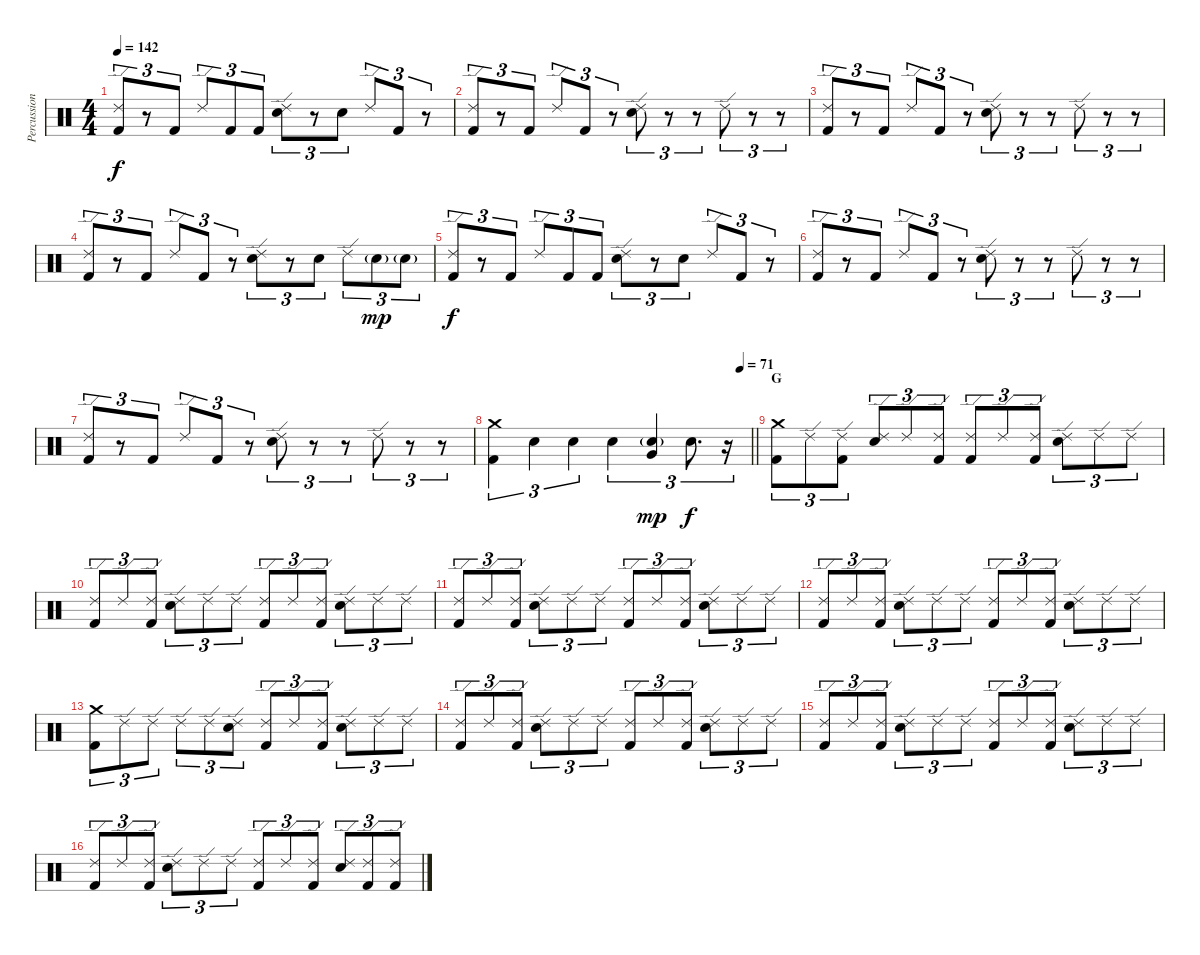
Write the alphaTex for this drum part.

\track ("Percussion" "Percussion") {instrument percussion}
\staff {score}
\articulation defaults
\ts (4 4)
\tempo 142
\clef neutral
\ks c
("Ride (edge) 2" "Kick (hit) 2").8{tu (3 2) dy f} r.8{tu (3 2)} "Kick (hit) 2".8{tu (3 2)} "Ride (edge) 2".8{tu (3 2)} "Kick (hit) 2".8{tu (3 2)} "Kick (hit) 2".8{tu (3 2)} ("Ride (edge) 2" "Electric Snare (hit)").8{tu (3 2)} r.8{tu (3 2)} "Electric Snare (hit)".8{tu (3 2)} "Ride (edge) 2".8{tu (3 2)} "Kick (hit) 2".8{tu (3 2)} r.8{tu (3 2)} |
("Ride (edge) 2" "Kick (hit) 2").8{tu (3 2)} r.8{tu (3 2)} "Kick (hit) 2".8{tu (3 2)} "Ride (edge) 2".8{tu (3 2)} "Kick (hit) 2".8{tu (3 2)} r.8{tu (3 2)} ("Ride (edge) 2" "Electric Snare (hit)").8{tu (3 2)} r.8{tu (3 2)} r.8{tu (3 2)} "Ride (edge) 2".8{tu (3 2)} r.8{tu (3 2)} r.8{tu (3 2)} |
("Ride (edge) 2" "Kick (hit) 2").8{tu (3 2)} r.8{tu (3 2)} "Kick (hit) 2".8{tu (3 2)} "Ride (edge) 2".8{tu (3 2)} "Kick (hit) 2".8{tu (3 2)} r.8{tu (3 2)} ("Ride (edge) 2" "Electric Snare (hit)").8{tu (3 2)} r.8{tu (3 2)} r.8{tu (3 2)} "Ride (edge) 2".8{tu (3 2)} r.8{tu (3 2)} r.8{tu (3 2)} |
("Ride (edge) 2" "Kick (hit) 2").8{tu (3 2)} r.8{tu (3 2)} "Kick (hit) 2".8{tu (3 2)} "Ride (edge) 2".8{tu (3 2)} "Kick (hit) 2".8{tu (3 2)} r.8{tu (3 2)} ("Ride (edge) 2" "Electric Snare (hit)").8{tu (3 2)} r.8{tu (3 2)} "Electric Snare (hit)".8{tu (3 2)} "Ride (edge) 2".8{tu (3 2)} "Electric Snare (hit)"{g}.8{tu (3 2) dy mp} "Electric Snare (hit)"{g}.8{tu (3 2)} |
("Ride (edge) 2" "Kick (hit) 2").8{tu (3 2) dy f} r.8{tu (3 2)} "Kick (hit) 2".8{tu (3 2)} "Ride (edge) 2".8{tu (3 2)} "Kick (hit) 2".8{tu (3 2)} "Kick (hit) 2".8{tu (3 2)} ("Ride (edge) 2" "Electric Snare (hit)").8{tu (3 2)} r.8{tu (3 2)} "Electric Snare (hit)".8{tu (3 2)} "Ride (edge) 2".8{tu (3 2)} "Kick (hit) 2".8{tu (3 2)} r.8{tu (3 2)} |
("Ride (edge) 2" "Kick (hit) 2").8{tu (3 2)} r.8{tu (3 2)} "Kick (hit) 2".8{tu (3 2)} "Ride (edge) 2".8{tu (3 2)} "Kick (hit) 2".8{tu (3 2)} r.8{tu (3 2)} ("Ride (edge) 2" "Electric Snare (hit)").8{tu (3 2)} r.8{tu (3 2)} r.8{tu (3 2)} "Ride (edge) 2".8{tu (3 2)} r.8{tu (3 2)} r.8{tu (3 2)} |
("Ride (edge) 2" "Kick (hit) 2").8{tu (3 2)} r.8{tu (3 2)} "Kick (hit) 2".8{tu (3 2)} "Ride (edge) 2".8{tu (3 2)} "Kick (hit) 2".8{tu (3 2)} r.8{tu (3 2)} ("Ride (edge) 2" "Electric Snare (hit)").8{tu (3 2)} r.8{tu (3 2)} r.8{tu (3 2)} "Ride (edge) 2".8{tu (3 2)} r.8{tu (3 2)} r.8{tu (3 2)} |
\tempo (71 0.9583333333333334)
\barLineRight lightlight
("Crash medium (hit)" "Kick (hit) 2").4{tu (3 2)} "Electric Snare (hit)".4{tu (3 2)} "Electric Snare (hit)".4{tu (3 2)} "Electric Snare (hit)".4{tu (3 2)} ("Very Low Tom (hit)" "Electric Snare (hit)"{g}).4{tu (3 2) dy mp} "Electric Snare (hit)".8{d tu (3 2) dy f} r.16{tu (3 2)} |
\section ("" "G")
("Crash medium (hit)" "Kick (hit) 2").8{tu (3 2)} "Ride (edge) 2".8{tu (3 2)} ("Ride (edge) 2" "Kick (hit) 2").8{tu (3 2)} ("Ride (edge) 2" "Electric Snare (hit)").8{tu (3 2)} "Ride (edge) 2".8{tu (3 2)} ("Ride (edge) 2" "Kick (hit) 2").8{tu (3 2)} ("Ride (edge) 2" "Kick (hit) 2").8{tu (3 2)} "Ride (edge) 2".8{tu (3 2)} ("Ride (edge) 2" "Kick (hit) 2").8{tu (3 2)} ("Ride (edge) 2" "Electric Snare (hit)").8{tu (3 2)} "Ride (edge) 2".8{tu (3 2)} "Ride (edge) 2".8{tu (3 2)} |
("Ride (edge) 2" "Kick (hit) 2").8{tu (3 2)} "Ride (edge) 2".8{tu (3 2)} ("Ride (edge) 2" "Kick (hit) 2").8{tu (3 2)} ("Ride (edge) 2" "Electric Snare (hit)").8{tu (3 2)} "Ride (edge) 2".8{tu (3 2)} "Ride (edge) 2".8{tu (3 2)} ("Ride (edge) 2" "Kick (hit) 2").8{tu (3 2)} "Ride (edge) 2".8{tu (3 2)} ("Ride (edge) 2" "Kick (hit) 2").8{tu (3 2)} ("Ride (edge) 2" "Electric Snare (hit)").8{tu (3 2)} "Ride (edge) 2".8{tu (3 2)} "Ride (edge) 2".8{tu (3 2)} |
("Ride (edge) 2" "Kick (hit) 2").8{tu (3 2)} "Ride (edge) 2".8{tu (3 2)} ("Ride (edge) 2" "Kick (hit) 2").8{tu (3 2)} ("Ride (edge) 2" "Electric Snare (hit)").8{tu (3 2)} "Ride (edge) 2".8{tu (3 2)} "Ride (edge) 2".8{tu (3 2)} ("Ride (edge) 2" "Kick (hit) 2").8{tu (3 2)} "Ride (edge) 2".8{tu (3 2)} ("Ride (edge) 2" "Kick (hit) 2").8{tu (3 2)} ("Ride (edge) 2" "Electric Snare (hit)").8{tu (3 2)} "Ride (edge) 2".8{tu (3 2)} "Ride (edge) 2".8{tu (3 2)} |
("Ride (edge) 2" "Kick (hit) 2").8{tu (3 2)} "Ride (edge) 2".8{tu (3 2)} ("Ride (edge) 2" "Kick (hit) 2").8{tu (3 2)} ("Ride (edge) 2" "Electric Snare (hit)").8{tu (3 2)} "Ride (edge) 2".8{tu (3 2)} "Ride (edge) 2".8{tu (3 2)} ("Ride (edge) 2" "Kick (hit) 2").8{tu (3 2)} "Ride (edge) 2".8{tu (3 2)} ("Ride (edge) 2" "Kick (hit) 2").8{tu (3 2)} ("Ride (edge) 2" "Electric Snare (hit)").8{tu (3 2)} "Ride (edge) 2".8{tu (3 2)} "Ride (edge) 2".8{tu (3 2)} |
("Crash medium (hit)" "Kick (hit) 2").8{tu (3 2)} "Ride (edge) 2".8{tu (3 2)} "Ride (edge) 2".8{tu (3 2)} "Ride (edge) 2".8{tu (3 2)} "Ride (edge) 2".8{tu (3 2)} ("Ride (edge) 2" "Electric Snare (hit)").8{tu (3 2)} ("Ride (edge) 2" "Kick (hit) 2").8{tu (3 2)} "Ride (edge) 2".8{tu (3 2)} ("Ride (edge) 2" "Kick (hit) 2").8{tu (3 2)} ("Ride (edge) 2" "Electric Snare (hit)").8{tu (3 2)} "Ride (edge) 2".8{tu (3 2)} "Ride (edge) 2".8{tu (3 2)} |
("Ride (edge) 2" "Kick (hit) 2").8{tu (3 2)} "Ride (edge) 2".8{tu (3 2)} ("Ride (edge) 2" "Kick (hit) 2").8{tu (3 2)} ("Ride (edge) 2" "Electric Snare (hit)").8{tu (3 2)} "Ride (edge) 2".8{tu (3 2)} "Ride (edge) 2".8{tu (3 2)} ("Ride (edge) 2" "Kick (hit) 2").8{tu (3 2)} "Ride (edge) 2".8{tu (3 2)} ("Ride (edge) 2" "Kick (hit) 2").8{tu (3 2)} ("Ride (edge) 2" "Electric Snare (hit)").8{tu (3 2)} "Ride (edge) 2".8{tu (3 2)} "Ride (edge) 2".8{tu (3 2)} |
("Ride (edge) 2" "Kick (hit) 2").8{tu (3 2)} "Ride (edge) 2".8{tu (3 2)} ("Ride (edge) 2" "Kick (hit) 2").8{tu (3 2)} ("Ride (edge) 2" "Electric Snare (hit)").8{tu (3 2)} "Ride (edge) 2".8{tu (3 2)} "Ride (edge) 2".8{tu (3 2)} ("Ride (edge) 2" "Kick (hit) 2").8{tu (3 2)} "Ride (edge) 2".8{tu (3 2)} ("Ride (edge) 2" "Kick (hit) 2").8{tu (3 2)} ("Ride (edge) 2" "Electric Snare (hit)").8{tu (3 2)} "Ride (edge) 2".8{tu (3 2)} "Ride (edge) 2".8{tu (3 2)} |
("Ride (edge) 2" "Kick (hit) 2").8{tu (3 2)} "Ride (edge) 2".8{tu (3 2)} ("Ride (edge) 2" "Kick (hit) 2").8{tu (3 2)} ("Ride (edge) 2" "Electric Snare (hit)").8{tu (3 2)} "Ride (edge) 2".8{tu (3 2)} "Ride (edge) 2".8{tu (3 2)} ("Ride (edge) 2" "Kick (hit) 2").8{tu (3 2)} "Ride (edge) 2".8{tu (3 2)} ("Ride (edge) 2" "Kick (hit) 2").8{tu (3 2)} ("Ride (edge) 2" "Electric Snare (hit)").8{tu (3 2)} ("Ride (edge) 2" "Kick (hit) 2").8{tu (3 2)} ("Ride (edge) 2" "Kick (hit) 2").8{tu (3 2)}
